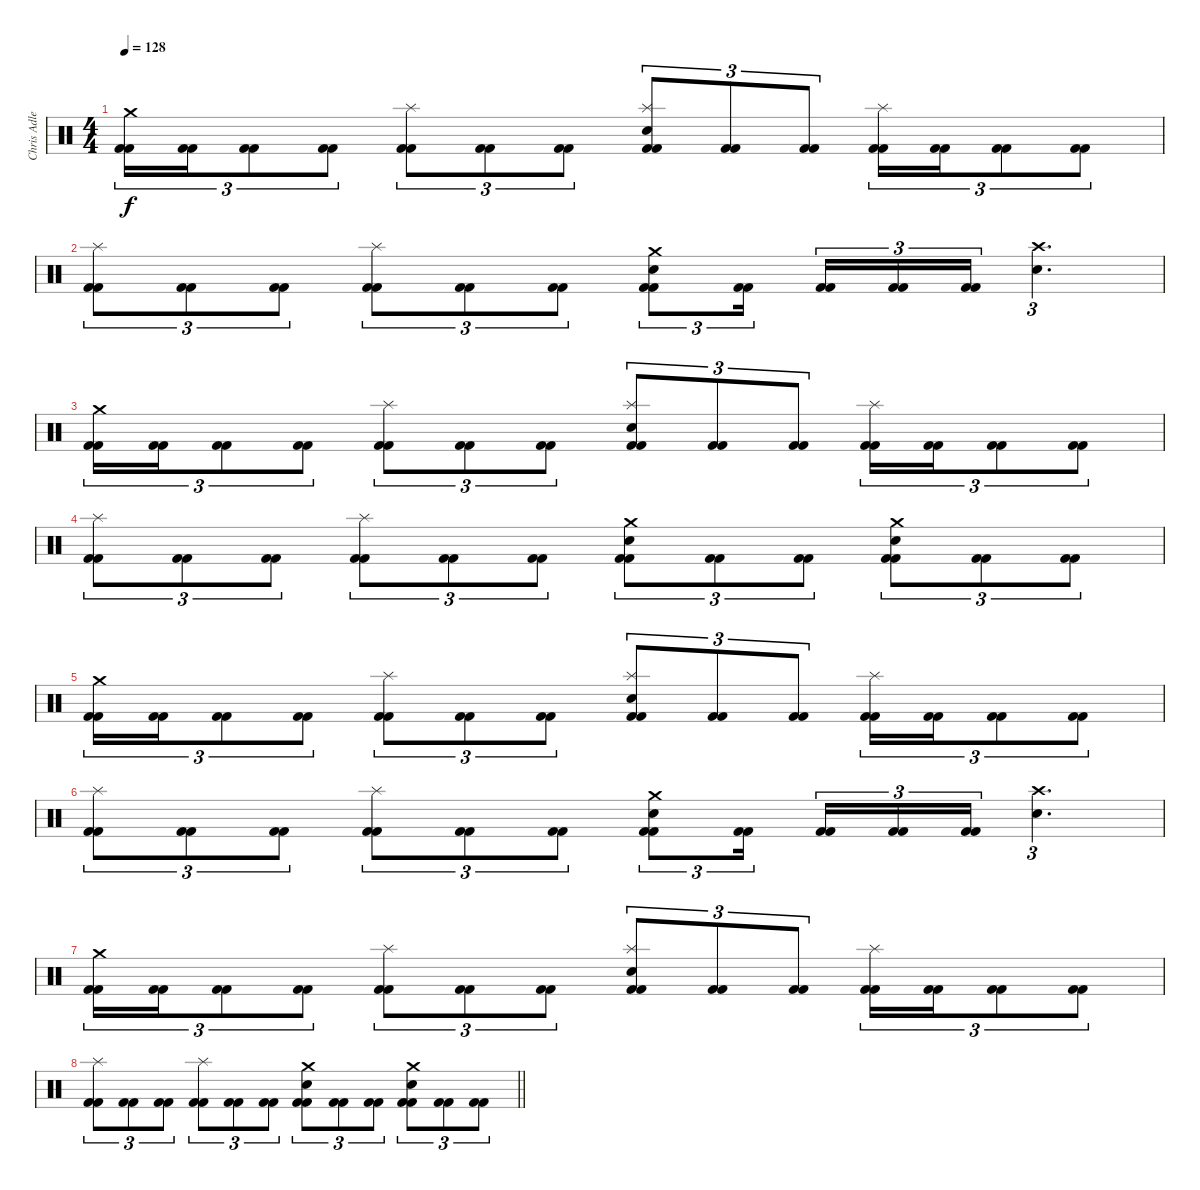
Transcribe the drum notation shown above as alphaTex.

\track ("Chris Adler" "Chris Adle") {instrument percussion}
\staff {score}
\articulation defaults
\ts (4 4)
\tempo 128
\clef neutral
\ks c
("Crash medium (hit)" "Kick (hit) 2" "Kick (hit) 2").16{tu (3 2) dy f} ("Kick (hit) 2" "Kick (hit) 2").16{tu (3 2)} ("Kick (hit) 2" "Kick (hit) 2").8{tu (3 2)} ("Kick (hit) 2" "Kick (hit) 2").8{tu (3 2)} ("Splash (hit)" "Kick (hit) 2" "Kick (hit) 2").8{tu (3 2)} ("Kick (hit) 2" "Kick (hit) 2").8{tu (3 2)} ("Kick (hit) 2" "Kick (hit) 2").8{tu (3 2)} ("Splash (hit)" "Electric Snare (hit)" "Kick (hit) 2" "Kick (hit) 2").8{tu (3 2)} ("Kick (hit) 2" "Kick (hit) 2").8{tu (3 2)} ("Kick (hit) 2" "Kick (hit) 2").8{tu (3 2)} ("Splash (hit)" "Kick (hit) 2" "Kick (hit) 2").16{tu (3 2)} ("Kick (hit) 2" "Kick (hit) 2").16{tu (3 2)} ("Kick (hit) 2" "Kick (hit) 2").8{tu (3 2)} ("Kick (hit) 2" "Kick (hit) 2").8{tu (3 2)} |
("Splash (hit)" "Kick (hit) 2" "Kick (hit) 2").8{tu (3 2)} ("Kick (hit) 2" "Kick (hit) 2").8{tu (3 2)} ("Kick (hit) 2" "Kick (hit) 2").8{tu (3 2)} ("Splash (hit)" "Kick (hit) 2" "Kick (hit) 2").8{tu (3 2)} ("Kick (hit) 2" "Kick (hit) 2").8{tu (3 2)} ("Kick (hit) 2" "Kick (hit) 2").8{tu (3 2)} ("Crash medium (hit)" "Electric Snare (hit)" "Kick (hit) 2" "Kick (hit) 2").8{tu (3 2)} ("Kick (hit) 2" "Kick (hit) 2").16{tu (3 2) beam splitsecondary} ("Kick (hit) 2" "Kick (hit) 2").16{tu (3 2)} ("Kick (hit) 2" "Kick (hit) 2").16{tu (3 2)} ("Kick (hit) 2" "Kick (hit) 2").16{tu (3 2)} ("Crash high (hit)" "Electric Snare (hit)").4{d tu (3 2)} |
("Crash medium (hit)" "Kick (hit) 2" "Kick (hit) 2").16{tu (3 2)} ("Kick (hit) 2" "Kick (hit) 2").16{tu (3 2)} ("Kick (hit) 2" "Kick (hit) 2").8{tu (3 2)} ("Kick (hit) 2" "Kick (hit) 2").8{tu (3 2)} ("Splash (hit)" "Kick (hit) 2" "Kick (hit) 2").8{tu (3 2)} ("Kick (hit) 2" "Kick (hit) 2").8{tu (3 2)} ("Kick (hit) 2" "Kick (hit) 2").8{tu (3 2)} ("Splash (hit)" "Electric Snare (hit)" "Kick (hit) 2" "Kick (hit) 2").8{tu (3 2)} ("Kick (hit) 2" "Kick (hit) 2").8{tu (3 2)} ("Kick (hit) 2" "Kick (hit) 2").8{tu (3 2)} ("Splash (hit)" "Kick (hit) 2" "Kick (hit) 2").16{tu (3 2)} ("Kick (hit) 2" "Kick (hit) 2").16{tu (3 2)} ("Kick (hit) 2" "Kick (hit) 2").8{tu (3 2)} ("Kick (hit) 2" "Kick (hit) 2").8{tu (3 2)} |
("Splash (hit)" "Kick (hit) 2" "Kick (hit) 2").8{tu (3 2)} ("Kick (hit) 2" "Kick (hit) 2").8{tu (3 2)} ("Kick (hit) 2" "Kick (hit) 2").8{tu (3 2)} ("Splash (hit)" "Kick (hit) 2" "Kick (hit) 2").8{tu (3 2)} ("Kick (hit) 2" "Kick (hit) 2").8{tu (3 2)} ("Kick (hit) 2" "Kick (hit) 2").8{tu (3 2)} ("Crash medium (hit)" "Electric Snare (hit)" "Kick (hit) 2" "Kick (hit) 2").8{tu (3 2)} ("Kick (hit) 2" "Kick (hit) 2").8{tu (3 2)} ("Kick (hit) 2" "Kick (hit) 2").8{tu (3 2)} ("Crash medium (hit)" "Electric Snare (hit)" "Kick (hit) 2" "Kick (hit) 2").8{tu (3 2)} ("Kick (hit) 2" "Kick (hit) 2").8{tu (3 2)} ("Kick (hit) 2" "Kick (hit) 2").8{tu (3 2)} |
("Crash medium (hit)" "Kick (hit) 2" "Kick (hit) 2").16{tu (3 2)} ("Kick (hit) 2" "Kick (hit) 2").16{tu (3 2)} ("Kick (hit) 2" "Kick (hit) 2").8{tu (3 2)} ("Kick (hit) 2" "Kick (hit) 2").8{tu (3 2)} ("Splash (hit)" "Kick (hit) 2" "Kick (hit) 2").8{tu (3 2)} ("Kick (hit) 2" "Kick (hit) 2").8{tu (3 2)} ("Kick (hit) 2" "Kick (hit) 2").8{tu (3 2)} ("Splash (hit)" "Electric Snare (hit)" "Kick (hit) 2" "Kick (hit) 2").8{tu (3 2)} ("Kick (hit) 2" "Kick (hit) 2").8{tu (3 2)} ("Kick (hit) 2" "Kick (hit) 2").8{tu (3 2)} ("Splash (hit)" "Kick (hit) 2" "Kick (hit) 2").16{tu (3 2)} ("Kick (hit) 2" "Kick (hit) 2").16{tu (3 2)} ("Kick (hit) 2" "Kick (hit) 2").8{tu (3 2)} ("Kick (hit) 2" "Kick (hit) 2").8{tu (3 2)} |
("Splash (hit)" "Kick (hit) 2" "Kick (hit) 2").8{tu (3 2)} ("Kick (hit) 2" "Kick (hit) 2").8{tu (3 2)} ("Kick (hit) 2" "Kick (hit) 2").8{tu (3 2)} ("Splash (hit)" "Kick (hit) 2" "Kick (hit) 2").8{tu (3 2)} ("Kick (hit) 2" "Kick (hit) 2").8{tu (3 2)} ("Kick (hit) 2" "Kick (hit) 2").8{tu (3 2)} ("Crash medium (hit)" "Electric Snare (hit)" "Kick (hit) 2" "Kick (hit) 2").8{tu (3 2)} ("Kick (hit) 2" "Kick (hit) 2").16{tu (3 2) beam splitsecondary} ("Kick (hit) 2" "Kick (hit) 2").16{tu (3 2)} ("Kick (hit) 2" "Kick (hit) 2").16{tu (3 2)} ("Kick (hit) 2" "Kick (hit) 2").16{tu (3 2)} ("Crash high (hit)" "Electric Snare (hit)").4{d tu (3 2)} |
("Crash medium (hit)" "Kick (hit) 2" "Kick (hit) 2").16{tu (3 2)} ("Kick (hit) 2" "Kick (hit) 2").16{tu (3 2)} ("Kick (hit) 2" "Kick (hit) 2").8{tu (3 2)} ("Kick (hit) 2" "Kick (hit) 2").8{tu (3 2)} ("Splash (hit)" "Kick (hit) 2" "Kick (hit) 2").8{tu (3 2)} ("Kick (hit) 2" "Kick (hit) 2").8{tu (3 2)} ("Kick (hit) 2" "Kick (hit) 2").8{tu (3 2)} ("Splash (hit)" "Electric Snare (hit)" "Kick (hit) 2" "Kick (hit) 2").8{tu (3 2)} ("Kick (hit) 2" "Kick (hit) 2").8{tu (3 2)} ("Kick (hit) 2" "Kick (hit) 2").8{tu (3 2)} ("Splash (hit)" "Kick (hit) 2" "Kick (hit) 2").16{tu (3 2)} ("Kick (hit) 2" "Kick (hit) 2").16{tu (3 2)} ("Kick (hit) 2" "Kick (hit) 2").8{tu (3 2)} ("Kick (hit) 2" "Kick (hit) 2").8{tu (3 2)} |
\barLineRight lightlight
("Splash (hit)" "Kick (hit) 2" "Kick (hit) 2").8{tu (3 2)} ("Kick (hit) 2" "Kick (hit) 2").8{tu (3 2)} ("Kick (hit) 2" "Kick (hit) 2").8{tu (3 2)} ("Splash (hit)" "Kick (hit) 2" "Kick (hit) 2").8{tu (3 2)} ("Kick (hit) 2" "Kick (hit) 2").8{tu (3 2)} ("Kick (hit) 2" "Kick (hit) 2").8{tu (3 2)} ("Crash medium (hit)" "Electric Snare (hit)" "Kick (hit) 2" "Kick (hit) 2").8{tu (3 2)} ("Kick (hit) 2" "Kick (hit) 2").8{tu (3 2)} ("Kick (hit) 2" "Kick (hit) 2").8{tu (3 2)} ("Crash medium (hit)" "Electric Snare (hit)" "Kick (hit) 2" "Kick (hit) 2").8{tu (3 2)} ("Kick (hit) 2" "Kick (hit) 2").8{tu (3 2)} ("Kick (hit) 2" "Kick (hit) 2").8{tu (3 2)}
